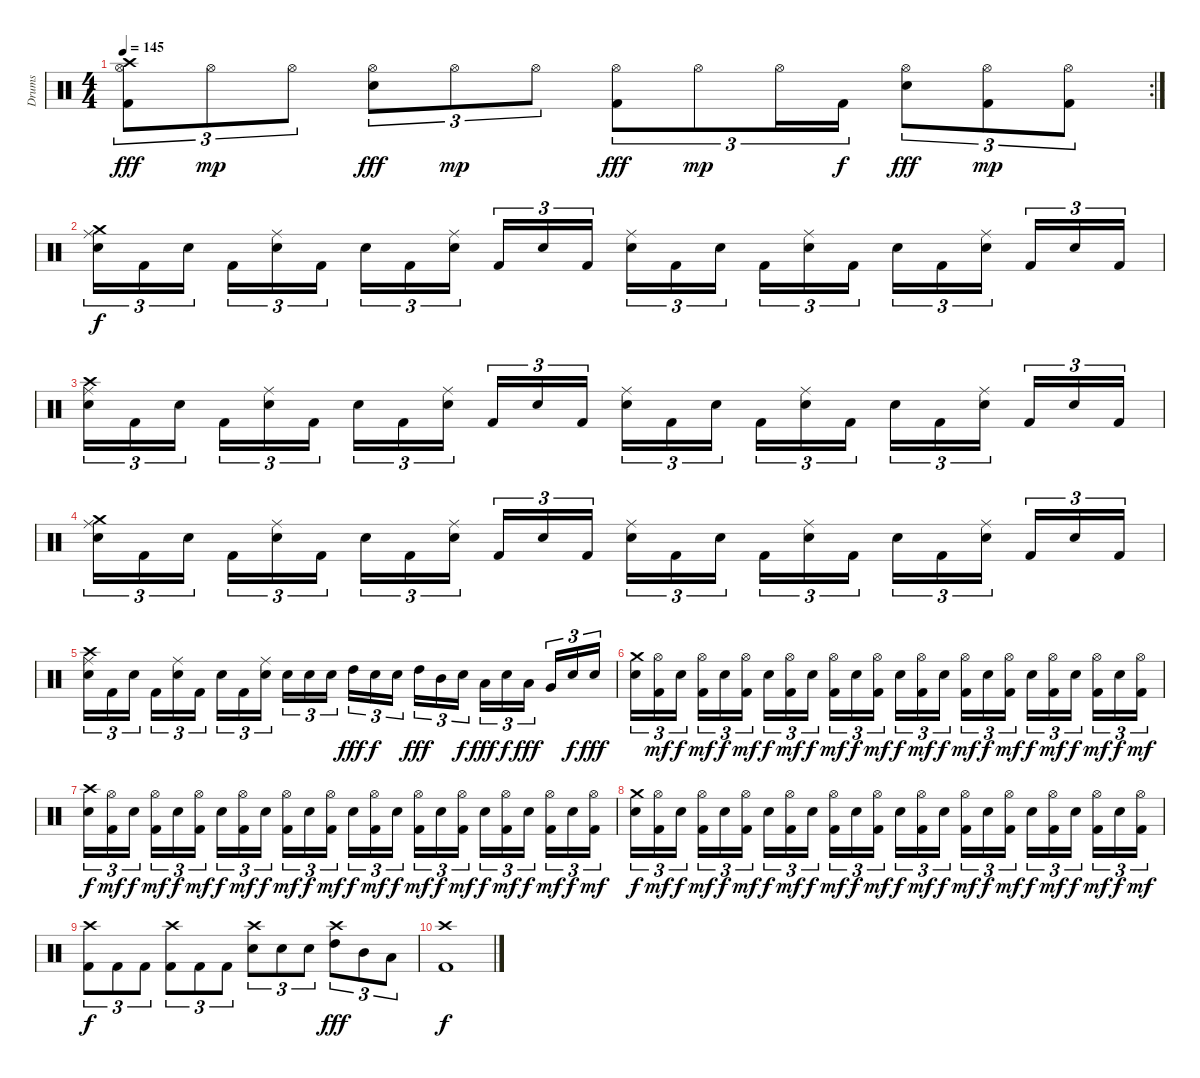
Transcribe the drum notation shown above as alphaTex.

\track ("Drums" "Drums") {instrument percussion}
\staff {score}
\articulation defaults
\rc 2
\ts (4 4)
\tempo 145
\clef neutral
\ks c
("Crash high (hit)" "Hi-Hat (open)" "Kick (hit) 2").8{tu (3 2) dy fff} "Hi-Hat (open)".8{tu (3 2) dy mp} "Hi-Hat (open)".8{tu (3 2)} ("Hi-Hat (open)" "Electric Snare (hit)").8{tu (3 2) dy fff} "Hi-Hat (open)".8{tu (3 2) dy mp} "Hi-Hat (open)".8{tu (3 2)} ("Hi-Hat (open)" "Kick (hit) 2").8{tu (3 2) dy fff} "Hi-Hat (open)".8{tu (3 2) dy mp} "Hi-Hat (open)".16{tu (3 2)} "Kick (hit) 2".16{tu (3 2) dy f} ("Hi-Hat (open)" "Electric Snare (hit)").8{tu (3 2) dy fff} ("Hi-Hat (open)" "Kick (hit) 2").8{tu (3 2) dy mp} ("Hi-Hat (open)" "Kick (hit) 2").8{tu (3 2)} |
("Ride (middle)" "Crash medium (hit)" "Electric Snare (hit)").16{tu (3 2) dy f volume 13} "Kick (hit) 2".16{tu (3 2)} "Electric Snare (hit)".16{tu (3 2)} "Kick (hit) 2".16{tu (3 2)} ("Ride (middle)" "Electric Snare (hit)").16{tu (3 2)} "Kick (hit) 2".16{tu (3 2)} "Electric Snare (hit)".16{tu (3 2)} "Kick (hit) 2".16{tu (3 2)} ("Ride (middle)" "Electric Snare (hit)").16{tu (3 2)} "Kick (hit) 2".16{tu (3 2)} "Electric Snare (hit)".16{tu (3 2)} "Kick (hit) 2".16{tu (3 2)} ("Ride (middle)" "Electric Snare (hit)").16{tu (3 2)} "Kick (hit) 2".16{tu (3 2)} "Electric Snare (hit)".16{tu (3 2)} "Kick (hit) 2".16{tu (3 2)} ("Ride (middle)" "Electric Snare (hit)").16{tu (3 2)} "Kick (hit) 2".16{tu (3 2)} "Electric Snare (hit)".16{tu (3 2)} "Kick (hit) 2".16{tu (3 2)} ("Ride (middle)" "Electric Snare (hit)").16{tu (3 2)} "Kick (hit) 2".16{tu (3 2)} "Electric Snare (hit)".16{tu (3 2)} "Kick (hit) 2".16{tu (3 2)} |
("Ride (middle)" "Crash high (hit)" "Electric Snare (hit)").16{tu (3 2) volume 13} "Kick (hit) 2".16{tu (3 2)} "Electric Snare (hit)".16{tu (3 2)} "Kick (hit) 2".16{tu (3 2)} ("Ride (middle)" "Electric Snare (hit)").16{tu (3 2)} "Kick (hit) 2".16{tu (3 2)} "Electric Snare (hit)".16{tu (3 2)} "Kick (hit) 2".16{tu (3 2)} ("Ride (middle)" "Electric Snare (hit)").16{tu (3 2)} "Kick (hit) 2".16{tu (3 2)} "Electric Snare (hit)".16{tu (3 2)} "Kick (hit) 2".16{tu (3 2)} ("Ride (middle)" "Electric Snare (hit)").16{tu (3 2)} "Kick (hit) 2".16{tu (3 2)} "Electric Snare (hit)".16{tu (3 2)} "Kick (hit) 2".16{tu (3 2)} ("Ride (middle)" "Electric Snare (hit)").16{tu (3 2)} "Kick (hit) 2".16{tu (3 2)} "Electric Snare (hit)".16{tu (3 2)} "Kick (hit) 2".16{tu (3 2)} ("Ride (middle)" "Electric Snare (hit)").16{tu (3 2)} "Kick (hit) 2".16{tu (3 2)} "Electric Snare (hit)".16{tu (3 2)} "Kick (hit) 2".16{tu (3 2)} |
("Ride (middle)" "Crash medium (hit)" "Electric Snare (hit)").16{tu (3 2)} "Kick (hit) 2".16{tu (3 2)} "Electric Snare (hit)".16{tu (3 2)} "Kick (hit) 2".16{tu (3 2)} ("Ride (middle)" "Electric Snare (hit)").16{tu (3 2)} "Kick (hit) 2".16{tu (3 2)} "Electric Snare (hit)".16{tu (3 2)} "Kick (hit) 2".16{tu (3 2)} ("Ride (middle)" "Electric Snare (hit)").16{tu (3 2)} "Kick (hit) 2".16{tu (3 2)} "Electric Snare (hit)".16{tu (3 2)} "Kick (hit) 2".16{tu (3 2)} ("Ride (middle)" "Electric Snare (hit)").16{tu (3 2)} "Kick (hit) 2".16{tu (3 2)} "Electric Snare (hit)".16{tu (3 2)} "Kick (hit) 2".16{tu (3 2)} ("Ride (middle)" "Electric Snare (hit)").16{tu (3 2)} "Kick (hit) 2".16{tu (3 2)} "Electric Snare (hit)".16{tu (3 2)} "Kick (hit) 2".16{tu (3 2)} ("Ride (middle)" "Electric Snare (hit)").16{tu (3 2)} "Kick (hit) 2".16{tu (3 2)} "Electric Snare (hit)".16{tu (3 2)} "Kick (hit) 2".16{tu (3 2)} |
("Ride (middle)" "Crash high (hit)" "Electric Snare (hit)").16{tu (3 2)} "Kick (hit) 2".16{tu (3 2)} "Electric Snare (hit)".16{tu (3 2)} "Kick (hit) 2".16{tu (3 2)} ("Ride (middle)" "Electric Snare (hit)").16{tu (3 2)} "Kick (hit) 2".16{tu (3 2)} "Electric Snare (hit)".16{tu (3 2)} "Kick (hit) 2".16{tu (3 2)} ("Ride (middle)" "Electric Snare (hit)").16{tu (3 2)} "Electric Snare (hit)".16{tu (3 2)} "Electric Snare (hit)".16{tu (3 2)} "Electric Snare (hit)".16{tu (3 2)} "High Tom (hit)".16{tu (3 2) dy fff} "Electric Snare (hit)".16{tu (3 2) dy f} "Electric Snare (hit)".16{tu (3 2)} "High Tom (hit)".16{tu (3 2) dy fff} "Mid Tom (hit)".16{tu (3 2)} "Electric Snare (hit)".16{tu (3 2) dy f} "Low Tom (hit)".16{tu (3 2) dy fff} "Electric Snare (hit)".16{tu (3 2) dy f} "Low Tom (hit)".16{tu (3 2) dy fff} "Very Low Tom (hit)".16{tu (3 2)} "Electric Snare (hit)".16{tu (3 2) dy f} "Electric Snare (hit)".16{tu (3 2) dy fff} |
("Crash medium (hit)" "Electric Snare (hit)").16{tu (3 2)} ("Hi-Hat (open)" "Kick (hit) 2").16{tu (3 2) dy mf} "Electric Snare (hit)".16{tu (3 2) dy f} ("Hi-Hat (open)" "Kick (hit) 2").16{tu (3 2) dy mf} "Electric Snare (hit)".16{tu (3 2) dy f} ("Hi-Hat (open)" "Kick (hit) 2").16{tu (3 2) dy mf} "Electric Snare (hit)".16{tu (3 2) dy f} ("Hi-Hat (open)" "Kick (hit) 2").16{tu (3 2) dy mf} "Electric Snare (hit)".16{tu (3 2) dy f} ("Hi-Hat (open)" "Kick (hit) 2").16{tu (3 2) dy mf} "Electric Snare (hit)".16{tu (3 2) dy f} ("Hi-Hat (open)" "Kick (hit) 2").16{tu (3 2) dy mf} "Electric Snare (hit)".16{tu (3 2) dy f} ("Hi-Hat (open)" "Kick (hit) 2").16{tu (3 2) dy mf} "Electric Snare (hit)".16{tu (3 2) dy f} ("Hi-Hat (open)" "Kick (hit) 2").16{tu (3 2) dy mf} "Electric Snare (hit)".16{tu (3 2) dy f} ("Hi-Hat (open)" "Kick (hit) 2").16{tu (3 2) dy mf} "Electric Snare (hit)".16{tu (3 2) dy f} ("Hi-Hat (open)" "Kick (hit) 2").16{tu (3 2) dy mf} "Electric Snare (hit)".16{tu (3 2) dy f} ("Hi-Hat (open)" "Kick (hit) 2").16{tu (3 2) dy mf} "Electric Snare (hit)".16{tu (3 2) dy f} ("Hi-Hat (open)" "Kick (hit) 2").16{tu (3 2) dy mf} |
("Crash high (hit)" "Electric Snare (hit)").16{tu (3 2) dy f} ("Hi-Hat (open)" "Kick (hit) 2").16{tu (3 2) dy mf} "Electric Snare (hit)".16{tu (3 2) dy f} ("Hi-Hat (open)" "Kick (hit) 2").16{tu (3 2) dy mf} "Electric Snare (hit)".16{tu (3 2) dy f} ("Hi-Hat (open)" "Kick (hit) 2").16{tu (3 2) dy mf} "Electric Snare (hit)".16{tu (3 2) dy f} ("Hi-Hat (open)" "Kick (hit) 2").16{tu (3 2) dy mf} "Electric Snare (hit)".16{tu (3 2) dy f} ("Hi-Hat (open)" "Kick (hit) 2").16{tu (3 2) dy mf} "Electric Snare (hit)".16{tu (3 2) dy f} ("Hi-Hat (open)" "Kick (hit) 2").16{tu (3 2) dy mf} "Electric Snare (hit)".16{tu (3 2) dy f} ("Hi-Hat (open)" "Kick (hit) 2").16{tu (3 2) dy mf} "Electric Snare (hit)".16{tu (3 2) dy f} ("Hi-Hat (open)" "Kick (hit) 2").16{tu (3 2) dy mf} "Electric Snare (hit)".16{tu (3 2) dy f} ("Hi-Hat (open)" "Kick (hit) 2").16{tu (3 2) dy mf} "Electric Snare (hit)".16{tu (3 2) dy f} ("Hi-Hat (open)" "Kick (hit) 2").16{tu (3 2) dy mf} "Electric Snare (hit)".16{tu (3 2) dy f} ("Hi-Hat (open)" "Kick (hit) 2").16{tu (3 2) dy mf} "Electric Snare (hit)".16{tu (3 2) dy f} ("Hi-Hat (open)" "Kick (hit) 2").16{tu (3 2) dy mf} |
("Crash medium (hit)" "Electric Snare (hit)").16{tu (3 2) dy f} ("Hi-Hat (open)" "Kick (hit) 2").16{tu (3 2) dy mf} "Electric Snare (hit)".16{tu (3 2) dy f} ("Hi-Hat (open)" "Kick (hit) 2").16{tu (3 2) dy mf} "Electric Snare (hit)".16{tu (3 2) dy f} ("Hi-Hat (open)" "Kick (hit) 2").16{tu (3 2) dy mf} "Electric Snare (hit)".16{tu (3 2) dy f} ("Hi-Hat (open)" "Kick (hit) 2").16{tu (3 2) dy mf} "Electric Snare (hit)".16{tu (3 2) dy f} ("Hi-Hat (open)" "Kick (hit) 2").16{tu (3 2) dy mf} "Electric Snare (hit)".16{tu (3 2) dy f} ("Hi-Hat (open)" "Kick (hit) 2").16{tu (3 2) dy mf} "Electric Snare (hit)".16{tu (3 2) dy f} ("Hi-Hat (open)" "Kick (hit) 2").16{tu (3 2) dy mf} "Electric Snare (hit)".16{tu (3 2) dy f} ("Hi-Hat (open)" "Kick (hit) 2").16{tu (3 2) dy mf} "Electric Snare (hit)".16{tu (3 2) dy f} ("Hi-Hat (open)" "Kick (hit) 2").16{tu (3 2) dy mf} "Electric Snare (hit)".16{tu (3 2) dy f} ("Hi-Hat (open)" "Kick (hit) 2").16{tu (3 2) dy mf} "Electric Snare (hit)".16{tu (3 2) dy f} ("Hi-Hat (open)" "Kick (hit) 2").16{tu (3 2) dy mf} "Electric Snare (hit)".16{tu (3 2) dy f} ("Hi-Hat (open)" "Kick (hit) 2").16{tu (3 2) dy mf} |
("Crash high (hit)" "Kick (hit) 2").8{tu (3 2) dy f} "Kick (hit) 2".8{tu (3 2)} "Kick (hit) 2".8{tu (3 2)} ("Crash high (hit)" "Kick (hit) 2").8{tu (3 2)} "Kick (hit) 2".8{tu (3 2)} "Kick (hit) 2".8{tu (3 2)} ("Crash high (hit)" "Electric Snare (hit)").8{tu (3 2)} "Electric Snare (hit)".8{tu (3 2)} "Electric Snare (hit)".8{tu (3 2)} ("Crash high (hit)" "High Tom (hit)").8{tu (3 2) dy fff} "Mid Tom (hit)".8{tu (3 2)} "Low Tom (hit)".8{tu (3 2)} |
("Crash high (hit)" "Kick (hit) 2").1{dy f volume 0}
